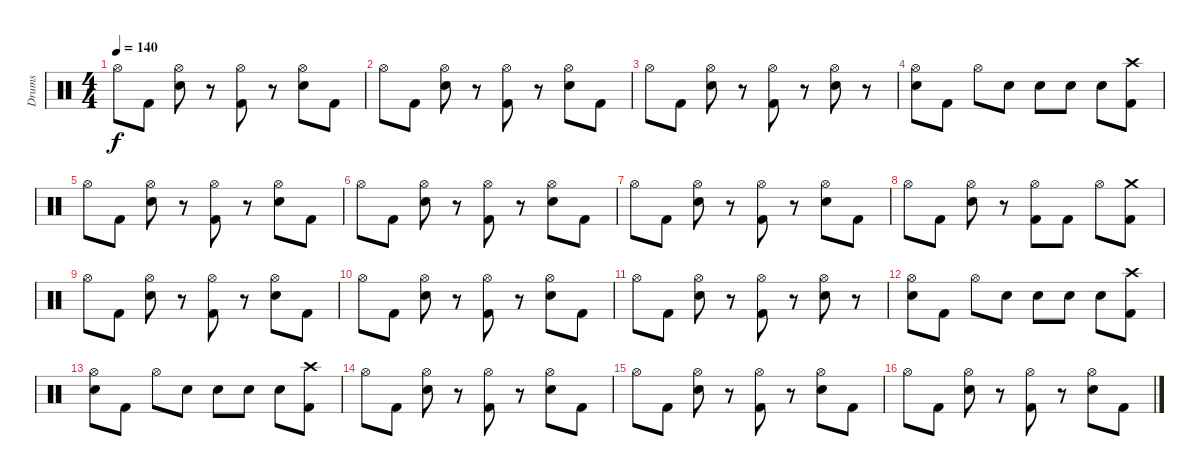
\track ("Drums" "Drums") {instrument percussion}
\staff {score}
\articulation defaults
\ts (4 4)
\tempo 140
\clef neutral
\ks c "Hi-Hat (open)".8{dy f} "Kick (hit) 2".8
("Hi-Hat (open)" "Electric Snare (hit)").8 r.8 ("Hi-Hat (open)" "Kick (hit) 2").8 r.8 ("Hi-Hat (open)" "Electric Snare (hit)").8 "Kick (hit) 2".8 |
"Hi-Hat (open)".8 "Kick (hit) 2".8 ("Hi-Hat (open)" "Electric Snare (hit)").8 r.8 ("Hi-Hat (open)" "Kick (hit) 2").8 r.8 ("Hi-Hat (open)" "Electric Snare (hit)").8 "Kick (hit) 2".8 |
"Hi-Hat (open)".8 "Kick (hit) 2".8 ("Hi-Hat (open)" "Electric Snare (hit)").8 r.8 ("Hi-Hat (open)" "Kick (hit) 2").8 r.8 ("Hi-Hat (open)" "Electric Snare (hit)").8 r.8 |
("Hi-Hat (open)" "Electric Snare (hit)").8 "Kick (hit) 2".8 "Hi-Hat (open)".8 "Electric Snare (hit)".8 "Electric Snare (hit)".8 "Electric Snare (hit)".8 "Electric Snare (hit)".8 ("Crash high (hit)" "Kick (hit) 2").8 |
"Hi-Hat (open)".8 "Kick (hit) 2".8 ("Hi-Hat (open)" "Electric Snare (hit)").8 r.8 ("Hi-Hat (open)" "Kick (hit) 2").8 r.8 ("Hi-Hat (open)" "Electric Snare (hit)").8 "Kick (hit) 2".8 |
"Hi-Hat (open)".8 "Kick (hit) 2".8 ("Hi-Hat (open)" "Electric Snare (hit)").8 r.8 ("Hi-Hat (open)" "Kick (hit) 2").8 r.8 ("Hi-Hat (open)" "Electric Snare (hit)").8 "Kick (hit) 2".8 |
"Hi-Hat (open)".8 "Kick (hit) 2".8 ("Hi-Hat (open)" "Electric Snare (hit)").8 r.8 ("Hi-Hat (open)" "Kick (hit) 2").8 r.8 ("Hi-Hat (open)" "Electric Snare (hit)").8 "Kick (hit) 2".8 |
"Hi-Hat (open)".8 "Kick (hit) 2".8 ("Hi-Hat (open)" "Electric Snare (hit)").8 r.8 ("Hi-Hat (open)" "Kick (hit) 2").8 "Kick (hit) 2".8 "Hi-Hat (open)".8 ("Crash medium (hit)" "Kick (hit) 2").8 |
"Hi-Hat (open)".8 "Kick (hit) 2".8 ("Hi-Hat (open)" "Electric Snare (hit)").8 r.8 ("Hi-Hat (open)" "Kick (hit) 2").8 r.8 ("Hi-Hat (open)" "Electric Snare (hit)").8 "Kick (hit) 2".8 |
"Hi-Hat (open)".8 "Kick (hit) 2".8 ("Hi-Hat (open)" "Electric Snare (hit)").8 r.8 ("Hi-Hat (open)" "Kick (hit) 2").8 r.8 ("Hi-Hat (open)" "Electric Snare (hit)").8 "Kick (hit) 2".8 |
"Hi-Hat (open)".8 "Kick (hit) 2".8 ("Hi-Hat (open)" "Electric Snare (hit)").8 r.8 ("Hi-Hat (open)" "Kick (hit) 2").8 r.8 ("Hi-Hat (open)" "Electric Snare (hit)").8 r.8 |
("Hi-Hat (open)" "Electric Snare (hit)").8 "Kick (hit) 2".8 "Hi-Hat (open)".8 "Electric Snare (hit)".8 "Electric Snare (hit)".8 "Electric Snare (hit)".8 "Electric Snare (hit)".8 ("Crash high (hit)" "Kick (hit) 2").8 |
("Hi-Hat (open)" "Electric Snare (hit)").8 "Kick (hit) 2".8 "Hi-Hat (open)".8 "Electric Snare (hit)".8 "Electric Snare (hit)".8 "Electric Snare (hit)".8 "Electric Snare (hit)".8 ("Crash high (hit)" "Kick (hit) 2").8 |
"Hi-Hat (open)".8 "Kick (hit) 2".8 ("Hi-Hat (open)" "Electric Snare (hit)").8 r.8 ("Hi-Hat (open)" "Kick (hit) 2").8 r.8 ("Hi-Hat (open)" "Electric Snare (hit)").8 "Kick (hit) 2".8 |
"Hi-Hat (open)".8 "Kick (hit) 2".8 ("Hi-Hat (open)" "Electric Snare (hit)").8 r.8 ("Hi-Hat (open)" "Kick (hit) 2").8 r.8 ("Hi-Hat (open)" "Electric Snare (hit)").8 "Kick (hit) 2".8 |
"Hi-Hat (open)".8 "Kick (hit) 2".8 ("Hi-Hat (open)" "Electric Snare (hit)").8 r.8 ("Hi-Hat (open)" "Kick (hit) 2").8 r.8 ("Hi-Hat (open)" "Electric Snare (hit)").8 "Kick (hit) 2".8
